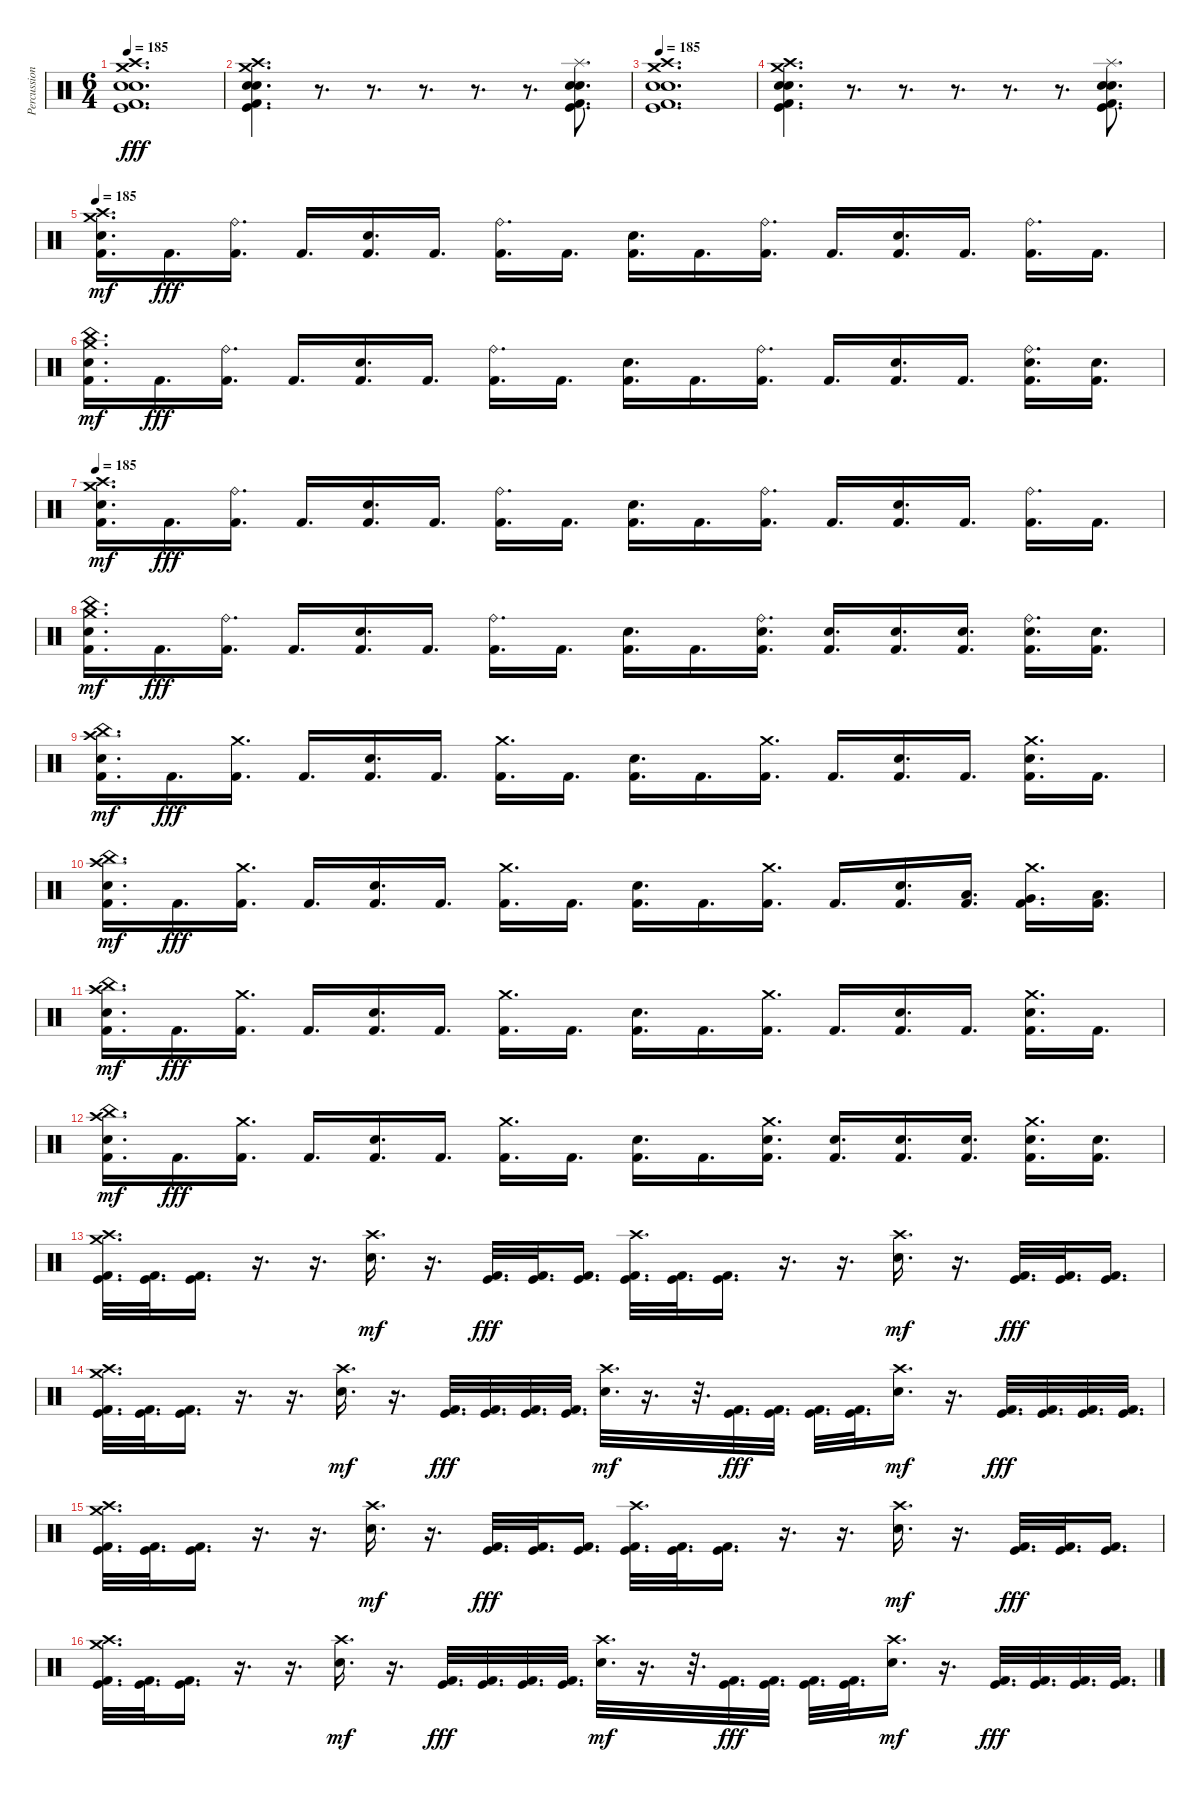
\track ("Percussions" "Percussion") {instrument percussion}
\staff {score}
\articulation defaults
\ts (6 4)
\tempo 185
\clef neutral
\ks c
("Crash medium (hit)" "Crash high (hit)" "Electric Snare (hit)" "Snare (hit) 2" "Kick (hit)" "Kick (hit) 2").1{d dy fff} |
("Crash medium (hit)" "Crash high (hit)" "Electric Snare (hit)" "Snare (hit) 2" "Kick (hit)" "Kick (hit) 2").4{d} r.8{d} r.8{d} r.8{d} r.8{d} r.8{d} ("Splash (hit)" "Electric Snare (hit)" "Snare (hit) 2" "Kick (hit)" "Kick (hit) 2").8{d} |
\tempo 185
("Crash medium (hit)" "Crash high (hit)" "Electric Snare (hit)" "Snare (hit) 2" "Kick (hit)" "Kick (hit) 2").1{d} |
("Crash medium (hit)" "Crash high (hit)" "Electric Snare (hit)" "Snare (hit) 2" "Kick (hit)" "Kick (hit) 2").4{d} r.8{d} r.8{d} r.8{d} r.8{d} r.8{d} ("Splash (hit)" "Electric Snare (hit)" "Snare (hit) 2" "Kick (hit)" "Kick (hit) 2").8{d} |
\tempo 185
("Crash high (hit)" "Crash medium (hit)" "Electric Snare (hit)" "Kick (hit) 2").16{d dy mf} "Kick (hit) 2".16{d dy fff} ("Ride (bell)" "Kick (hit) 2").16{d} "Kick (hit) 2".16{d} ("Electric Snare (hit)" "Kick (hit) 2").16{d} "Kick (hit) 2".16{d} ("Ride (bell)" "Kick (hit) 2").16{d} "Kick (hit) 2".16{d} ("Electric Snare (hit)" "Kick (hit) 2").16{d} "Kick (hit) 2".16{d} ("Ride (bell)" "Kick (hit) 2").16{d} "Kick (hit) 2".16{d} ("Electric Snare (hit)" "Kick (hit) 2").16{d} "Kick (hit) 2".16{d} ("Ride (bell)" "Kick (hit) 2").16{d} "Kick (hit) 2".16{d} |
("China (hit)" "Crash medium (hit)" "Electric Snare (hit)" "Kick (hit) 2").16{d dy mf} "Kick (hit) 2".16{d dy fff} ("Ride (bell)" "Kick (hit) 2").16{d} "Kick (hit) 2".16{d} ("Electric Snare (hit)" "Kick (hit) 2").16{d} "Kick (hit) 2".16{d} ("Ride (bell)" "Kick (hit) 2").16{d} "Kick (hit) 2".16{d} ("Electric Snare (hit)" "Kick (hit) 2").16{d} "Kick (hit) 2".16{d} ("Ride (bell)" "Kick (hit) 2").16{d} "Kick (hit) 2".16{d} ("Electric Snare (hit)" "Kick (hit) 2").16{d} "Kick (hit) 2".16{d} ("Ride (bell)" "Electric Snare (hit)" "Kick (hit) 2").16{d} ("Electric Snare (hit)" "Kick (hit) 2").16{d} |
\tempo 185
("Crash high (hit)" "Crash medium (hit)" "Electric Snare (hit)" "Kick (hit) 2").16{d dy mf} "Kick (hit) 2".16{d dy fff} ("Ride (bell)" "Kick (hit) 2").16{d} "Kick (hit) 2".16{d} ("Electric Snare (hit)" "Kick (hit) 2").16{d} "Kick (hit) 2".16{d} ("Ride (bell)" "Kick (hit) 2").16{d} "Kick (hit) 2".16{d} ("Electric Snare (hit)" "Kick (hit) 2").16{d} "Kick (hit) 2".16{d} ("Ride (bell)" "Kick (hit) 2").16{d} "Kick (hit) 2".16{d} ("Electric Snare (hit)" "Kick (hit) 2").16{d} "Kick (hit) 2".16{d} ("Ride (bell)" "Kick (hit) 2").16{d} "Kick (hit) 2".16{d} |
("China (hit)" "Crash medium (hit)" "Electric Snare (hit)" "Kick (hit) 2").16{d dy mf} "Kick (hit) 2".16{d dy fff} ("Ride (bell)" "Kick (hit) 2").16{d} "Kick (hit) 2".16{d} ("Electric Snare (hit)" "Kick (hit) 2").16{d} "Kick (hit) 2".16{d} ("Ride (bell)" "Kick (hit) 2").16{d} "Kick (hit) 2".16{d} ("Electric Snare (hit)" "Kick (hit) 2").16{d} "Kick (hit) 2".16{d} ("Ride (bell)" "Electric Snare (hit)" "Kick (hit) 2").16{d} ("Electric Snare (hit)" "Kick (hit) 2").16{d} ("Electric Snare (hit)" "Kick (hit) 2").16{d} ("Electric Snare (hit)" "Kick (hit) 2").16{d} ("Ride (bell)" "Electric Snare (hit)" "Kick (hit) 2").16{d} ("Electric Snare (hit)" "Kick (hit) 2").16{d} |
("Crash high (hit)" "China (hit)" "Electric Snare (hit)" "Kick (hit) 2").16{d dy mf} "Kick (hit) 2".16{d dy fff} ("Crash medium (hit)" "Kick (hit) 2").16{d} "Kick (hit) 2".16{d} ("Electric Snare (hit)" "Kick (hit) 2").16{d} "Kick (hit) 2".16{d} ("Crash medium (hit)" "Kick (hit) 2").16{d} "Kick (hit) 2".16{d} ("Electric Snare (hit)" "Kick (hit) 2").16{d} "Kick (hit) 2".16{d} ("Crash medium (hit)" "Kick (hit) 2").16{d} "Kick (hit) 2".16{d} ("Electric Snare (hit)" "Kick (hit) 2").16{d} "Kick (hit) 2".16{d} ("Crash medium (hit)" "Electric Snare (hit)" "Kick (hit) 2").16{d} "Kick (hit) 2".16{d} |
("Crash high (hit)" "China (hit)" "Electric Snare (hit)" "Kick (hit) 2").16{d dy mf} "Kick (hit) 2".16{d dy fff} ("Crash medium (hit)" "Kick (hit) 2").16{d} "Kick (hit) 2".16{d} ("Electric Snare (hit)" "Kick (hit) 2").16{d} "Kick (hit) 2".16{d} ("Crash medium (hit)" "Kick (hit) 2").16{d} "Kick (hit) 2".16{d} ("Electric Snare (hit)" "Kick (hit) 2").16{d} "Kick (hit) 2".16{d} ("Crash medium (hit)" "Kick (hit) 2").16{d} "Kick (hit) 2".16{d} ("Electric Snare (hit)" "Kick (hit) 2").16{d} ("Low Floor Tom (hit)" "Kick (hit) 2").16{d} ("Crash medium (hit)" "Very Low Tom (hit)" "Kick (hit) 2").16{d} ("Low Tom (hit)" "Kick (hit) 2").16{d} |
("Crash high (hit)" "China (hit)" "Electric Snare (hit)" "Kick (hit) 2").16{d dy mf} "Kick (hit) 2".16{d dy fff} ("Crash medium (hit)" "Kick (hit) 2").16{d} "Kick (hit) 2".16{d} ("Electric Snare (hit)" "Kick (hit) 2").16{d} "Kick (hit) 2".16{d} ("Crash medium (hit)" "Kick (hit) 2").16{d} "Kick (hit) 2".16{d} ("Electric Snare (hit)" "Kick (hit) 2").16{d} "Kick (hit) 2".16{d} ("Crash medium (hit)" "Kick (hit) 2").16{d} "Kick (hit) 2".16{d} ("Electric Snare (hit)" "Kick (hit) 2").16{d} "Kick (hit) 2".16{d} ("Crash medium (hit)" "Electric Snare (hit)" "Kick (hit) 2").16{d} "Kick (hit) 2".16{d} |
("Crash high (hit)" "China (hit)" "Electric Snare (hit)" "Kick (hit) 2").16{d dy mf} "Kick (hit) 2".16{d dy fff} ("Crash medium (hit)" "Kick (hit) 2").16{d} "Kick (hit) 2".16{d} ("Electric Snare (hit)" "Kick (hit) 2").16{d} "Kick (hit) 2".16{d} ("Crash medium (hit)" "Kick (hit) 2").16{d} "Kick (hit) 2".16{d} ("Electric Snare (hit)" "Kick (hit) 2").16{d} "Kick (hit) 2".16{d} ("Crash medium (hit)" "Electric Snare (hit)" "Kick (hit) 2").16{d} ("Electric Snare (hit)" "Kick (hit) 2").16{d} ("Electric Snare (hit)" "Kick (hit) 2").16{d} ("Electric Snare (hit)" "Kick (hit) 2").16{d} ("Crash medium (hit)" "Electric Snare (hit)" "Kick (hit) 2").16{d} ("Electric Snare (hit)" "Kick (hit) 2").16{d} |
("Crash high (hit)" "Crash medium (hit)" "Kick (hit)" "Kick (hit) 2").32{d} ("Kick (hit)" "Kick (hit) 2").32{d} ("Kick (hit)" "Kick (hit) 2").16{d} r.16{d} r.16{d} ("Crash high (hit)" "Electric Snare (hit)").16{d dy mf} r.16{d} ("Kick (hit)" "Kick (hit) 2").32{d dy fff} ("Kick (hit)" "Kick (hit) 2").32{d} ("Kick (hit)" "Kick (hit) 2").16{d} ("Crash high (hit)" "Kick (hit)" "Kick (hit) 2").32{d} ("Kick (hit)" "Kick (hit) 2").32{d} ("Kick (hit)" "Kick (hit) 2").16{d} r.16{d} r.16{d} ("Crash high (hit)" "Electric Snare (hit)").16{d dy mf} r.16{d} ("Kick (hit)" "Kick (hit) 2").32{d dy fff} ("Kick (hit)" "Kick (hit) 2").32{d} ("Kick (hit)" "Kick (hit) 2").16{d} |
("Crash high (hit)" "Crash medium (hit)" "Kick (hit)" "Kick (hit) 2").32{d} ("Kick (hit)" "Kick (hit) 2").32{d} ("Kick (hit)" "Kick (hit) 2").16{d} r.16{d} r.16{d} ("Crash high (hit)" "Electric Snare (hit)").16{d dy mf} r.16{d} ("Kick (hit)" "Kick (hit) 2").32{d dy fff} ("Kick (hit)" "Kick (hit) 2").32{d} ("Kick (hit)" "Kick (hit) 2").32{d} ("Kick (hit)" "Kick (hit) 2").32{d} ("Crash high (hit)" "Electric Snare (hit)").32{d dy mf} r.16{d} r.32{d} ("Kick (hit)" "Kick (hit) 2").32{d dy fff} ("Kick (hit)" "Kick (hit) 2").32{d} ("Kick (hit)" "Kick (hit) 2").32{d} ("Kick (hit)" "Kick (hit) 2").32{d} ("Crash high (hit)" "Electric Snare (hit)").16{d dy mf} r.16{d} ("Kick (hit)" "Kick (hit) 2").32{d dy fff} ("Kick (hit)" "Kick (hit) 2").32{d} ("Kick (hit)" "Kick (hit) 2").32{d} ("Kick (hit)" "Kick (hit) 2").32{d} |
("Crash high (hit)" "Crash medium (hit)" "Kick (hit)" "Kick (hit) 2").32{d} ("Kick (hit)" "Kick (hit) 2").32{d} ("Kick (hit)" "Kick (hit) 2").16{d} r.16{d} r.16{d} ("Crash high (hit)" "Electric Snare (hit)").16{d dy mf} r.16{d} ("Kick (hit)" "Kick (hit) 2").32{d dy fff} ("Kick (hit)" "Kick (hit) 2").32{d} ("Kick (hit)" "Kick (hit) 2").16{d} ("Crash high (hit)" "Kick (hit)" "Kick (hit) 2").32{d} ("Kick (hit)" "Kick (hit) 2").32{d} ("Kick (hit)" "Kick (hit) 2").16{d} r.16{d} r.16{d} ("Crash high (hit)" "Electric Snare (hit)").16{d dy mf} r.16{d} ("Kick (hit)" "Kick (hit) 2").32{d dy fff} ("Kick (hit)" "Kick (hit) 2").32{d} ("Kick (hit)" "Kick (hit) 2").16{d} |
("Crash high (hit)" "Crash medium (hit)" "Kick (hit)" "Kick (hit) 2").32{d} ("Kick (hit)" "Kick (hit) 2").32{d} ("Kick (hit)" "Kick (hit) 2").16{d} r.16{d} r.16{d} ("Crash high (hit)" "Electric Snare (hit)").16{d dy mf} r.16{d} ("Kick (hit)" "Kick (hit) 2").32{d dy fff} ("Kick (hit)" "Kick (hit) 2").32{d} ("Kick (hit)" "Kick (hit) 2").32{d} ("Kick (hit)" "Kick (hit) 2").32{d} ("Crash high (hit)" "Electric Snare (hit)").32{d dy mf} r.16{d} r.32{d} ("Kick (hit)" "Kick (hit) 2").32{d dy fff} ("Kick (hit)" "Kick (hit) 2").32{d} ("Kick (hit)" "Kick (hit) 2").32{d} ("Kick (hit)" "Kick (hit) 2").32{d} ("Crash high (hit)" "Electric Snare (hit)").16{d dy mf} r.16{d} ("Kick (hit)" "Kick (hit) 2").32{d dy fff} ("Kick (hit)" "Kick (hit) 2").32{d} ("Kick (hit)" "Kick (hit) 2").32{d} ("Kick (hit)" "Kick (hit) 2").32{d}
